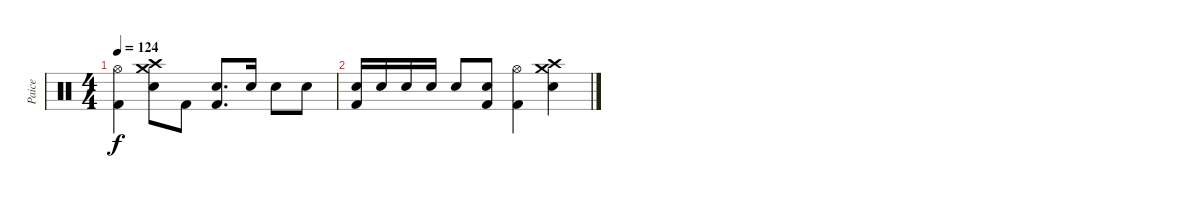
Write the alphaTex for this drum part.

\track ("Paice" "Paice") {instrument percussion}
\staff {score}
\articulation defaults
\ts (4 4)
\tempo 124
\clef neutral
\ks c
("Hi-Hat (open)" "Kick (hit) 2").4{dy f} ("Crash high (hit)" "Crash medium (hit)" "Electric Snare (hit)").8 "Kick (hit) 2".8 ("Electric Snare (hit)" "Kick (hit) 2").8{d} "Electric Snare (hit)".16 "Electric Snare (hit)".8 "Electric Snare (hit)".8 |
("Electric Snare (hit)" "Kick (hit) 2").16 "Electric Snare (hit)".16 "Electric Snare (hit)".16 "Electric Snare (hit)".16 "Electric Snare (hit)".8 ("Electric Snare (hit)" "Kick (hit) 2").8 ("Hi-Hat (open)" "Kick (hit) 2").4 ("Crash high (hit)" "Crash medium (hit)" "Electric Snare (hit)").4
